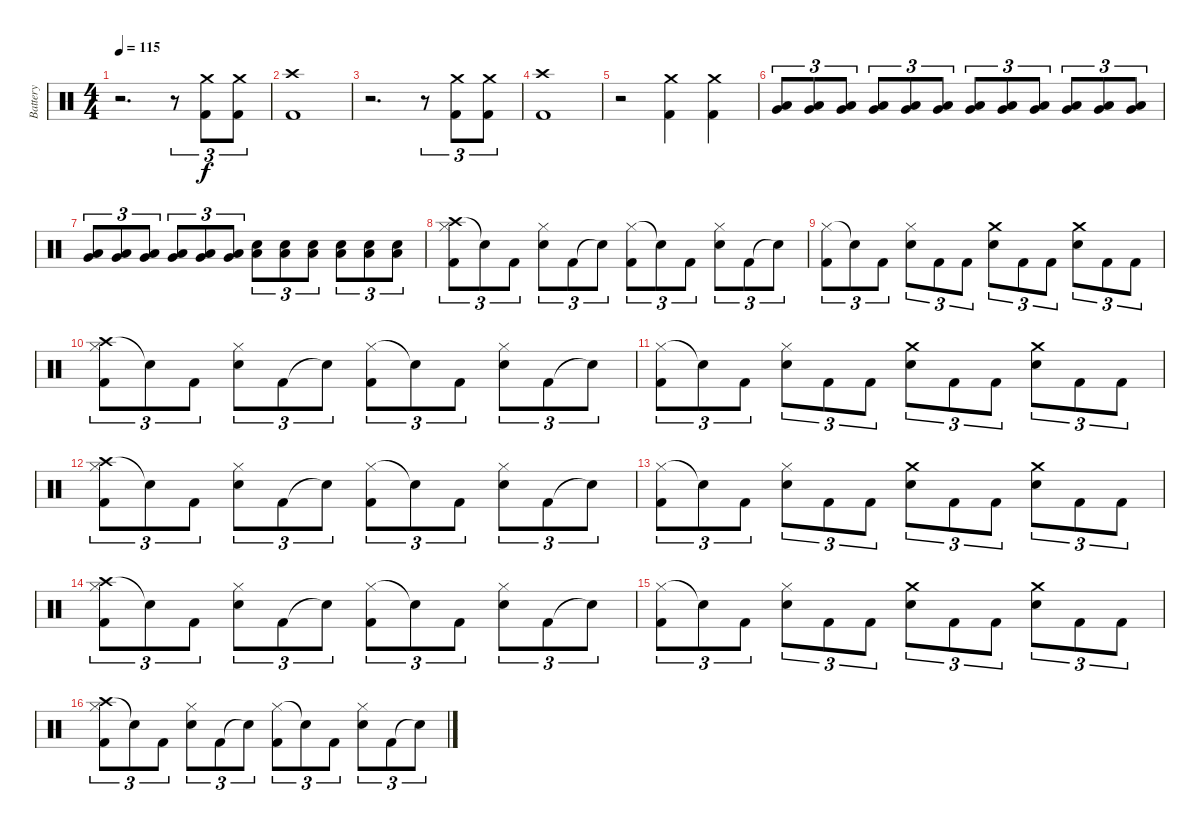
\track ("Battery" "Battery") {instrument percussion}
\staff {score}
\articulation defaults
\ts (4 4)
\tempo 115
\clef neutral
\ks c
r.2{d dy f} r.8{tu (3 2)} ("Crash medium (hit)" "Kick (hit) 2").8{tu (3 2)} ("Crash medium (hit)" "Kick (hit) 2").8{tu (3 2)} |
("Crash high (hit)" "Kick (hit) 2").1 |
r.2{d} r.8{tu (3 2)} ("Crash medium (hit)" "Kick (hit) 2").8{tu (3 2)} ("Crash medium (hit)" "Kick (hit) 2").8{tu (3 2)} |
("Crash high (hit)" "Kick (hit) 2").1 |
r.2 ("Crash medium (hit)" "Kick (hit) 2").4 ("Crash medium (hit)" "Kick (hit) 2").4 |
("Low Tom (hit)" "Very Low Tom (hit)").8{tu (3 2)} ("Low Tom (hit)" "Very Low Tom (hit)").8{tu (3 2)} ("Low Tom (hit)" "Very Low Tom (hit)").8{tu (3 2)} ("Low Tom (hit)" "Very Low Tom (hit)").8{tu (3 2)} ("Low Tom (hit)" "Very Low Tom (hit)").8{tu (3 2)} ("Low Tom (hit)" "Very Low Tom (hit)").8{tu (3 2)} ("Low Tom (hit)" "Very Low Tom (hit)").8{tu (3 2)} ("Low Tom (hit)" "Very Low Tom (hit)").8{tu (3 2)} ("Low Tom (hit)" "Very Low Tom (hit)").8{tu (3 2)} ("Low Tom (hit)" "Very Low Tom (hit)").8{tu (3 2)} ("Low Tom (hit)" "Very Low Tom (hit)").8{tu (3 2)} ("Low Tom (hit)" "Very Low Tom (hit)").8{tu (3 2)} |
("Low Tom (hit)" "Very Low Tom (hit)").8{tu (3 2)} ("Low Tom (hit)" "Very Low Tom (hit)").8{tu (3 2)} ("Low Tom (hit)" "Very Low Tom (hit)").8{tu (3 2)} ("Low Tom (hit)" "Very Low Tom (hit)").8{tu (3 2)} ("Low Tom (hit)" "Very Low Tom (hit)").8{tu (3 2)} ("Low Tom (hit)" "Very Low Tom (hit)").8{tu (3 2)} ("Low Tom (hit)" "Electric Snare (hit)").8{tu (3 2)} ("Low Tom (hit)" "Electric Snare (hit)").8{tu (3 2)} ("Low Tom (hit)" "Electric Snare (hit)").8{tu (3 2)} ("Low Tom (hit)" "Electric Snare (hit)").8{tu (3 2)} ("Low Tom (hit)" "Electric Snare (hit)").8{tu (3 2)} ("Low Tom (hit)" "Electric Snare (hit)").8{tu (3 2)} |
("Crash high (hit)" "Hi-Hat (closed)" "Kick (hit) 2").8{tu (3 2)} "Snare (hit)"{t}.8{tu (3 2)} "Kick (hit) 2".8{tu (3 2)} ("Hi-Hat (closed)" "Electric Snare (hit)").8{tu (3 2)} "Kick (hit) 2".8{tu (3 2)} "Snare (hit)"{t}.8{tu (3 2)} ("Hi-Hat (closed)" "Kick (hit) 2").8{tu (3 2)} "Snare (hit)"{t}.8{tu (3 2)} "Kick (hit) 2".8{tu (3 2)} ("Hi-Hat (closed)" "Electric Snare (hit)").8{tu (3 2)} "Kick (hit) 2".8{tu (3 2)} "Snare (hit)"{t}.8{tu (3 2)} |
("Hi-Hat (closed)" "Kick (hit) 2").8{tu (3 2)} "Snare (hit)"{t}.8{tu (3 2)} "Kick (hit) 2".8{tu (3 2)} ("Hi-Hat (closed)" "Electric Snare (hit)").8{tu (3 2)} "Kick (hit) 2".8{tu (3 2)} "Kick (hit) 2".8{tu (3 2)} ("Crash medium (hit)" "Electric Snare (hit)").8{tu (3 2)} "Kick (hit) 2".8{tu (3 2)} "Kick (hit) 2".8{tu (3 2)} ("Crash medium (hit)" "Electric Snare (hit)").8{tu (3 2)} "Kick (hit) 2".8{tu (3 2)} "Kick (hit) 2".8{tu (3 2)} |
("Crash high (hit)" "Hi-Hat (closed)" "Kick (hit) 2").8{tu (3 2)} "Snare (hit)"{t}.8{tu (3 2)} "Kick (hit) 2".8{tu (3 2)} ("Hi-Hat (closed)" "Electric Snare (hit)").8{tu (3 2)} "Kick (hit) 2".8{tu (3 2)} "Snare (hit)"{t}.8{tu (3 2)} ("Hi-Hat (closed)" "Kick (hit) 2").8{tu (3 2)} "Snare (hit)"{t}.8{tu (3 2)} "Kick (hit) 2".8{tu (3 2)} ("Hi-Hat (closed)" "Electric Snare (hit)").8{tu (3 2)} "Kick (hit) 2".8{tu (3 2)} "Snare (hit)"{t}.8{tu (3 2)} |
("Hi-Hat (closed)" "Kick (hit) 2").8{tu (3 2)} "Snare (hit)"{t}.8{tu (3 2)} "Kick (hit) 2".8{tu (3 2)} ("Hi-Hat (closed)" "Electric Snare (hit)").8{tu (3 2)} "Kick (hit) 2".8{tu (3 2)} "Kick (hit) 2".8{tu (3 2)} ("Crash medium (hit)" "Electric Snare (hit)").8{tu (3 2)} "Kick (hit) 2".8{tu (3 2)} "Kick (hit) 2".8{tu (3 2)} ("Crash medium (hit)" "Electric Snare (hit)").8{tu (3 2)} "Kick (hit) 2".8{tu (3 2)} "Kick (hit) 2".8{tu (3 2)} |
("Crash high (hit)" "Hi-Hat (closed)" "Kick (hit) 2").8{tu (3 2)} "Snare (hit)"{t}.8{tu (3 2)} "Kick (hit) 2".8{tu (3 2)} ("Hi-Hat (closed)" "Electric Snare (hit)").8{tu (3 2)} "Kick (hit) 2".8{tu (3 2)} "Snare (hit)"{t}.8{tu (3 2)} ("Hi-Hat (closed)" "Kick (hit) 2").8{tu (3 2)} "Snare (hit)"{t}.8{tu (3 2)} "Kick (hit) 2".8{tu (3 2)} ("Hi-Hat (closed)" "Electric Snare (hit)").8{tu (3 2)} "Kick (hit) 2".8{tu (3 2)} "Snare (hit)"{t}.8{tu (3 2)} |
("Hi-Hat (closed)" "Kick (hit) 2").8{tu (3 2)} "Snare (hit)"{t}.8{tu (3 2)} "Kick (hit) 2".8{tu (3 2)} ("Hi-Hat (closed)" "Electric Snare (hit)").8{tu (3 2)} "Kick (hit) 2".8{tu (3 2)} "Kick (hit) 2".8{tu (3 2)} ("Crash medium (hit)" "Electric Snare (hit)").8{tu (3 2)} "Kick (hit) 2".8{tu (3 2)} "Kick (hit) 2".8{tu (3 2)} ("Crash medium (hit)" "Electric Snare (hit)").8{tu (3 2)} "Kick (hit) 2".8{tu (3 2)} "Kick (hit) 2".8{tu (3 2)} |
("Crash high (hit)" "Hi-Hat (closed)" "Kick (hit) 2").8{tu (3 2)} "Snare (hit)"{t}.8{tu (3 2)} "Kick (hit) 2".8{tu (3 2)} ("Hi-Hat (closed)" "Electric Snare (hit)").8{tu (3 2)} "Kick (hit) 2".8{tu (3 2)} "Snare (hit)"{t}.8{tu (3 2)} ("Hi-Hat (closed)" "Kick (hit) 2").8{tu (3 2)} "Snare (hit)"{t}.8{tu (3 2)} "Kick (hit) 2".8{tu (3 2)} ("Hi-Hat (closed)" "Electric Snare (hit)").8{tu (3 2)} "Kick (hit) 2".8{tu (3 2)} "Snare (hit)"{t}.8{tu (3 2)} |
("Hi-Hat (closed)" "Kick (hit) 2").8{tu (3 2)} "Snare (hit)"{t}.8{tu (3 2)} "Kick (hit) 2".8{tu (3 2)} ("Hi-Hat (closed)" "Electric Snare (hit)").8{tu (3 2)} "Kick (hit) 2".8{tu (3 2)} "Kick (hit) 2".8{tu (3 2)} ("Crash medium (hit)" "Electric Snare (hit)").8{tu (3 2)} "Kick (hit) 2".8{tu (3 2)} "Kick (hit) 2".8{tu (3 2)} ("Crash medium (hit)" "Electric Snare (hit)").8{tu (3 2)} "Kick (hit) 2".8{tu (3 2)} "Kick (hit) 2".8{tu (3 2)} |
("Crash high (hit)" "Hi-Hat (closed)" "Kick (hit) 2").8{tu (3 2)} "Snare (hit)"{t}.8{tu (3 2)} "Kick (hit) 2".8{tu (3 2)} ("Hi-Hat (closed)" "Electric Snare (hit)").8{tu (3 2)} "Kick (hit) 2".8{tu (3 2)} "Snare (hit)"{t}.8{tu (3 2)} ("Hi-Hat (closed)" "Kick (hit) 2").8{tu (3 2)} "Snare (hit)"{t}.8{tu (3 2)} "Kick (hit) 2".8{tu (3 2)} ("Hi-Hat (closed)" "Electric Snare (hit)").8{tu (3 2)} "Kick (hit) 2".8{tu (3 2)} "Snare (hit)"{t}.8{tu (3 2)}
